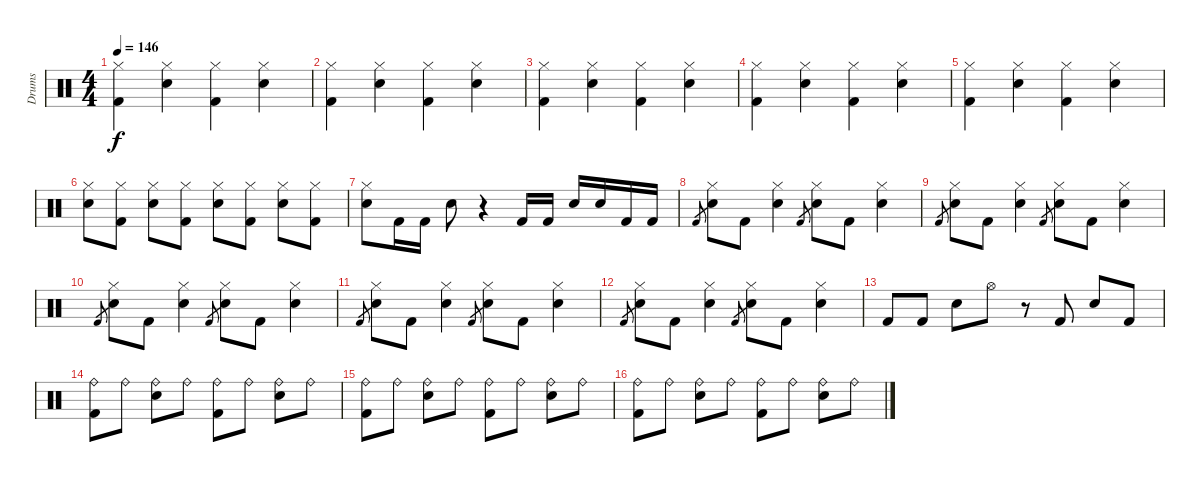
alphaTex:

\track ("Drums" "Drums") {instrument percussion}
\staff {score}
\articulation defaults
\ts (4 4)
\tempo 146
\clef neutral
\ks c
("Hi-Hat (closed)" "Kick (hit) 2").4{dy f} ("Hi-Hat (closed)" "Snare (hit) 2").4 ("Hi-Hat (closed)" "Kick (hit) 2").4 ("Hi-Hat (closed)" "Snare (hit) 2").4 |
("Hi-Hat (closed)" "Kick (hit) 2").4 ("Hi-Hat (closed)" "Snare (hit) 2").4 ("Hi-Hat (closed)" "Kick (hit) 2").4 ("Hi-Hat (closed)" "Snare (hit) 2").4 |
("Hi-Hat (closed)" "Kick (hit) 2").4 ("Hi-Hat (closed)" "Snare (hit) 2").4 ("Hi-Hat (closed)" "Kick (hit) 2").4 ("Hi-Hat (closed)" "Snare (hit) 2").4 |
("Hi-Hat (closed)" "Kick (hit) 2").4 ("Hi-Hat (closed)" "Snare (hit) 2").4 ("Hi-Hat (closed)" "Kick (hit) 2").4 ("Hi-Hat (closed)" "Snare (hit) 2").4 |
("Hi-Hat (closed)" "Kick (hit) 2").4 ("Hi-Hat (closed)" "Snare (hit) 2").4 ("Hi-Hat (closed)" "Kick (hit) 2").4 ("Hi-Hat (closed)" "Snare (hit) 2").4 |
("Hi-Hat (closed)" "Snare (hit) 2").8 ("Hi-Hat (closed)" "Kick (hit) 2").8 ("Hi-Hat (closed)" "Snare (hit) 2").8 ("Hi-Hat (closed)" "Kick (hit) 2").8 ("Hi-Hat (closed)" "Snare (hit) 2").8 ("Hi-Hat (closed)" "Kick (hit) 2").8 ("Hi-Hat (closed)" "Snare (hit) 2").8 ("Hi-Hat (closed)" "Kick (hit) 2").8 |
("Hi-Hat (closed)" "Snare (hit) 2").8 "Kick (hit) 2".16 "Kick (hit) 2".16 "Snare (hit) 2".8 r.4 "Kick (hit) 2".16 "Kick (hit) 2".16 "Snare (hit) 2".16 "Snare (hit) 2".16 "Kick (hit) 2".16 "Kick (hit) 2".16 |
"Kick (hit) 2".8{gr} ("Hi-Hat (closed)" "Snare (hit) 2").8 "Kick (hit) 2".8 ("Hi-Hat (closed)" "Snare (hit) 2").4 "Kick (hit) 2".8{gr} ("Hi-Hat (closed)" "Snare (hit) 2").8 "Kick (hit) 2".8 ("Hi-Hat (closed)" "Snare (hit) 2").4 |
"Kick (hit) 2".8{gr} ("Hi-Hat (closed)" "Snare (hit) 2").8 "Kick (hit) 2".8 ("Hi-Hat (closed)" "Snare (hit) 2").4 "Kick (hit) 2".8{gr} ("Hi-Hat (closed)" "Snare (hit) 2").8 "Kick (hit) 2".8 ("Hi-Hat (closed)" "Snare (hit) 2").4 |
"Kick (hit) 2".8{gr} ("Hi-Hat (closed)" "Snare (hit) 2").8 "Kick (hit) 2".8 ("Hi-Hat (closed)" "Snare (hit) 2").4 "Kick (hit) 2".8{gr} ("Hi-Hat (closed)" "Snare (hit) 2").8 "Kick (hit) 2".8 ("Hi-Hat (closed)" "Snare (hit) 2").4 |
"Kick (hit) 2".8{gr} ("Hi-Hat (closed)" "Snare (hit) 2").8 "Kick (hit) 2".8 ("Hi-Hat (closed)" "Snare (hit) 2").4 "Kick (hit) 2".8{gr} ("Hi-Hat (closed)" "Snare (hit) 2").8 "Kick (hit) 2".8 ("Hi-Hat (closed)" "Snare (hit) 2").4 |
"Kick (hit) 2".8{gr} ("Hi-Hat (closed)" "Snare (hit) 2").8 "Kick (hit) 2".8 ("Hi-Hat (closed)" "Snare (hit) 2").4 "Kick (hit) 2".8{gr} ("Hi-Hat (closed)" "Snare (hit) 2").8 "Kick (hit) 2".8 ("Hi-Hat (closed)" "Snare (hit) 2").4 |
"Kick (hit) 2".8 "Kick (hit) 2".8 "Snare (hit) 2".8 "Hi-Hat (open)".8 r.8 "Kick (hit) 2".8 "Snare (hit) 2".8 "Kick (hit) 2".8 |
("Ride (bell)" "Kick (hit) 2").8 "Ride (bell)".8 ("Ride (bell)" "Snare (hit) 2").8 "Ride (bell)".8 ("Ride (bell)" "Kick (hit) 2").8 "Ride (bell)".8 ("Ride (bell)" "Snare (hit) 2").8 "Ride (bell)".8 |
("Ride (bell)" "Kick (hit) 2").8 "Ride (bell)".8 ("Ride (bell)" "Snare (hit) 2").8 "Ride (bell)".8 ("Ride (bell)" "Kick (hit) 2").8 "Ride (bell)".8 ("Ride (bell)" "Snare (hit) 2").8 "Ride (bell)".8 |
("Ride (bell)" "Kick (hit) 2").8 "Ride (bell)".8 ("Ride (bell)" "Snare (hit) 2").8 "Ride (bell)".8 ("Ride (bell)" "Kick (hit) 2").8 "Ride (bell)".8 ("Ride (bell)" "Snare (hit) 2").8 "Ride (bell)".8
